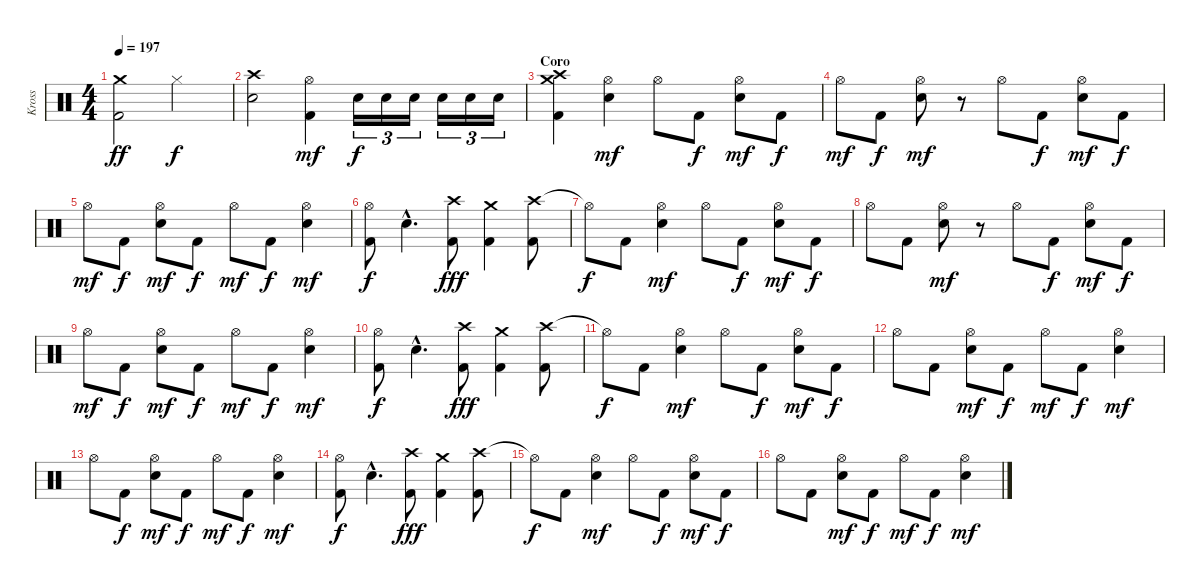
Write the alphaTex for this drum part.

\track ("Kross" "Kross") {instrument percussion}
\staff {score}
\articulation defaults
\ts (4 4)
\tempo 197
\clef neutral
\ks c
("Crash medium (hit)" "Kick (hit) 2").2{dy ff} "Hi-Hat (closed)".2{dy f} |
("Crash high (hit)" "Electric Snare (hit)").2 ("Hi-Hat (open)" "Kick (hit) 2").4{dy mf} "Electric Snare (hit)".16{tu (3 2) dy f} "Electric Snare (hit)".16{tu (3 2)} "Electric Snare (hit)".16{tu (3 2)} "Electric Snare (hit)".16{tu (3 2)} "Electric Snare (hit)".16{tu (3 2)} "Electric Snare (hit)".16{tu (3 2)} |
\section ("" "Coro")
("Crash medium (hit)" "Crash high (hit)" "Kick (hit) 2").4 ("Hi-Hat (open)" "Electric Snare (hit)").4{dy mf} "Hi-Hat (open)".8 "Kick (hit) 2".8{dy f} ("Hi-Hat (open)" "Electric Snare (hit)").8{dy mf} "Kick (hit) 2".8{dy f} |
"Hi-Hat (open)".8{dy mf} "Kick (hit) 2".8{dy f} ("Hi-Hat (open)" "Electric Snare (hit)").8{dy mf} r.8 "Hi-Hat (open)".8 "Kick (hit) 2".8{dy f} ("Hi-Hat (open)" "Electric Snare (hit)").8{dy mf} "Kick (hit) 2".8{dy f} |
"Hi-Hat (open)".8{dy mf} "Kick (hit) 2".8{dy f} ("Hi-Hat (open)" "Electric Snare (hit)").8{dy mf} "Kick (hit) 2".8{dy f} "Hi-Hat (open)".8{dy mf} "Kick (hit) 2".8{dy f} ("Hi-Hat (open)" "Electric Snare (hit)").4{dy mf} |
("Hi-Hat (open)" "Kick (hit) 2").8{dy f} "Electric Snare (hit)"{hac}.4{d} ("Crash high (hit)" "Kick (hit) 2").8{dy fff} ("Crash medium (hit)" "Kick (hit) 2").4 ("Crash high (hit)" "Kick (hit) 2").8 |
"Hi-Hat (open)"{t}.8{dy f} "Kick (hit) 2".8 ("Hi-Hat (open)" "Electric Snare (hit)").4{dy mf} "Hi-Hat (open)".8 "Kick (hit) 2".8{dy f} ("Hi-Hat (open)" "Electric Snare (hit)").8{dy mf} "Kick (hit) 2".8{dy f} |
"Hi-Hat (open)".8 "Kick (hit) 2".8 ("Hi-Hat (open)" "Electric Snare (hit)").8{dy mf} r.8 "Hi-Hat (open)".8 "Kick (hit) 2".8{dy f} ("Hi-Hat (open)" "Electric Snare (hit)").8{dy mf} "Kick (hit) 2".8{dy f} |
"Hi-Hat (open)".8{dy mf} "Kick (hit) 2".8{dy f} ("Hi-Hat (open)" "Electric Snare (hit)").8{dy mf} "Kick (hit) 2".8{dy f} "Hi-Hat (open)".8{dy mf} "Kick (hit) 2".8{dy f} ("Hi-Hat (open)" "Electric Snare (hit)").4{dy mf} |
("Hi-Hat (open)" "Kick (hit) 2").8{dy f} "Electric Snare (hit)"{hac}.4{d} ("Crash high (hit)" "Kick (hit) 2").8{dy fff} ("Crash medium (hit)" "Kick (hit) 2").4 ("Crash high (hit)" "Kick (hit) 2").8 |
"Hi-Hat (open)"{t}.8{dy f} "Kick (hit) 2".8 ("Hi-Hat (open)" "Electric Snare (hit)").4{dy mf} "Hi-Hat (open)".8 "Kick (hit) 2".8{dy f} ("Hi-Hat (open)" "Electric Snare (hit)").8{dy mf} "Kick (hit) 2".8{dy f} |
"Hi-Hat (open)".8 "Kick (hit) 2".8 ("Hi-Hat (open)" "Electric Snare (hit)").8{dy mf} "Kick (hit) 2".8{dy f} "Hi-Hat (open)".8{dy mf} "Kick (hit) 2".8{dy f} ("Hi-Hat (open)" "Electric Snare (hit)").4{dy mf} |
"Hi-Hat (open)".8 "Kick (hit) 2".8{dy f} ("Hi-Hat (open)" "Electric Snare (hit)").8{dy mf} "Kick (hit) 2".8{dy f} "Hi-Hat (open)".8{dy mf} "Kick (hit) 2".8{dy f} ("Hi-Hat (open)" "Electric Snare (hit)").4{dy mf} |
("Hi-Hat (open)" "Kick (hit) 2").8{dy f} "Electric Snare (hit)"{hac}.4{d} ("Crash high (hit)" "Kick (hit) 2").8{dy fff} ("Crash medium (hit)" "Kick (hit) 2").4 ("Crash high (hit)" "Kick (hit) 2").8 |
"Hi-Hat (open)"{t}.8{dy f} "Kick (hit) 2".8 ("Hi-Hat (open)" "Electric Snare (hit)").4{dy mf} "Hi-Hat (open)".8 "Kick (hit) 2".8{dy f} ("Hi-Hat (open)" "Electric Snare (hit)").8{dy mf} "Kick (hit) 2".8{dy f} |
"Hi-Hat (open)".8 "Kick (hit) 2".8 ("Hi-Hat (open)" "Electric Snare (hit)").8{dy mf} "Kick (hit) 2".8{dy f} "Hi-Hat (open)".8{dy mf} "Kick (hit) 2".8{dy f} ("Hi-Hat (open)" "Electric Snare (hit)").4{dy mf}
